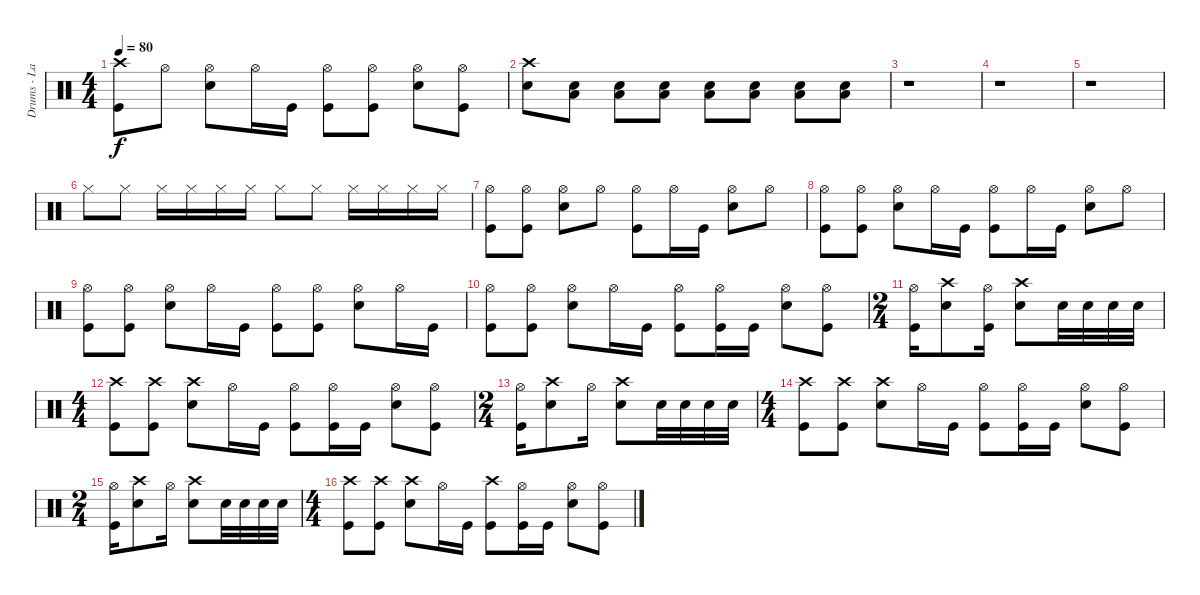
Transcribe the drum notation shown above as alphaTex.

\track ("Drums - Lars" "Drums - La") {instrument percussion}
\staff {score}
\articulation defaults
\ts (4 4)
\tempo 80
\clef neutral
\ks c
("Crash high (hit)" "Kick (hit)").8{dy f} "Hi-Hat (open)".8 ("Hi-Hat (open)" "Snare (hit) 2").8 "Hi-Hat (open)".16 "Kick (hit)".16 ("Hi-Hat (open)" "Kick (hit)").8 ("Hi-Hat (open)" "Kick (hit)").8 ("Hi-Hat (open)" "Snare (hit) 2").8 ("Hi-Hat (open)" "Kick (hit)").8 |
("Crash high (hit)" "Snare (hit) 2").8 ("Snare (hit) 2" "Low Floor Tom (hit)").8 ("Snare (hit) 2" "Low Floor Tom (hit)").8 ("Snare (hit) 2" "Low Floor Tom (hit)").8 ("Snare (hit) 2" "Low Floor Tom (hit)").8 ("Snare (hit) 2" "Low Floor Tom (hit)").8 ("Snare (hit) 2" "Low Floor Tom (hit)").8 ("Snare (hit) 2" "Low Floor Tom (hit)").8 |
r.1 |
r.1 |
r.1 |
"Hi-Hat (closed)".8 "Hi-Hat (closed)".8 "Hi-Hat (closed)".16 "Hi-Hat (closed)".16 "Hi-Hat (closed)".16 "Hi-Hat (closed)".16 "Hi-Hat (closed)".8 "Hi-Hat (closed)".8 "Hi-Hat (closed)".16 "Hi-Hat (closed)".16 "Hi-Hat (closed)".16 "Hi-Hat (closed)".16 |
("Hi-Hat (open)" "Kick (hit)").8 ("Hi-Hat (open)" "Kick (hit)").8 ("Hi-Hat (open)" "Snare (hit) 2").8 "Hi-Hat (open)".8 ("Hi-Hat (open)" "Kick (hit)").8 "Hi-Hat (open)".16 "Kick (hit)".16 ("Hi-Hat (open)" "Snare (hit) 2").8 "Hi-Hat (open)".8 |
("Hi-Hat (open)" "Kick (hit)").8 ("Hi-Hat (open)" "Kick (hit)").8 ("Hi-Hat (open)" "Snare (hit) 2").8 "Hi-Hat (open)".16 "Kick (hit)".16 ("Hi-Hat (open)" "Kick (hit)").8 "Hi-Hat (open)".16 "Kick (hit)".16 ("Hi-Hat (open)" "Snare (hit) 2").8 "Hi-Hat (open)".8 |
("Hi-Hat (open)" "Kick (hit)").8 ("Hi-Hat (open)" "Kick (hit)").8 ("Hi-Hat (open)" "Snare (hit) 2").8 "Hi-Hat (open)".16 "Kick (hit)".16 ("Hi-Hat (open)" "Kick (hit)").8 ("Hi-Hat (open)" "Kick (hit)").8 ("Hi-Hat (open)" "Snare (hit) 2").8 "Hi-Hat (open)".16 "Kick (hit)".16 |
("Hi-Hat (open)" "Kick (hit)").8 ("Hi-Hat (open)" "Kick (hit)").8 ("Hi-Hat (open)" "Snare (hit) 2").8 "Hi-Hat (open)".16 "Kick (hit)".16 ("Hi-Hat (open)" "Kick (hit)").8 ("Hi-Hat (open)" "Kick (hit)").16 "Kick (hit)".16 ("Hi-Hat (open)" "Snare (hit) 2").8 ("Hi-Hat (open)" "Kick (hit)").8 |
\ts (2 4)
("Hi-Hat (open)" "Kick (hit)").16 ("Crash high (hit)" "Snare (hit) 2").8 ("Hi-Hat (open)" "Kick (hit)").16 ("Crash high (hit)" "Snare (hit) 2").8 "Snare (hit) 2".32 "Snare (hit) 2".32 "Snare (hit) 2".32 "Snare (hit) 2".32 |
\ts (4 4)
("Crash high (hit)" "Kick (hit)").8 ("Crash high (hit)" "Kick (hit)").8 ("Crash high (hit)" "Snare (hit) 2").8 "Hi-Hat (open)".16 "Kick (hit)".16 ("Hi-Hat (open)" "Kick (hit)").8 ("Hi-Hat (open)" "Kick (hit)").16 "Kick (hit)".16 ("Hi-Hat (open)" "Snare (hit) 2").8 ("Hi-Hat (open)" "Kick (hit)").8 |
\ts (2 4)
("Hi-Hat (open)" "Kick (hit)").16 ("Crash high (hit)" "Snare (hit) 2").8 "Hi-Hat (open)".16 ("Crash high (hit)" "Snare (hit) 2").8 "Snare (hit) 2".32 "Snare (hit) 2".32 "Snare (hit) 2".32 "Snare (hit) 2".32 |
\ts (4 4)
("Crash high (hit)" "Kick (hit)").8 ("Crash high (hit)" "Kick (hit)").8 ("Crash high (hit)" "Snare (hit) 2").8 "Hi-Hat (open)".16 "Kick (hit)".16 ("Hi-Hat (open)" "Kick (hit)").8 ("Hi-Hat (open)" "Kick (hit)").16 "Kick (hit)".16 ("Hi-Hat (open)" "Snare (hit) 2").8 ("Hi-Hat (open)" "Kick (hit)").8 |
\ts (2 4)
("Hi-Hat (open)" "Kick (hit)").16 ("Crash high (hit)" "Snare (hit) 2").8 "Hi-Hat (open)".16 ("Crash high (hit)" "Snare (hit) 2").8 "Snare (hit) 2".32 "Snare (hit) 2".32 "Snare (hit) 2".32 "Snare (hit) 2".32 |
\ts (4 4)
("Crash high (hit)" "Kick (hit)").8 ("Crash high (hit)" "Kick (hit)").8 ("Crash high (hit)" "Snare (hit) 2").8 "Hi-Hat (open)".16 "Kick (hit)".16 ("Crash high (hit)" "Kick (hit)").8 ("Hi-Hat (open)" "Kick (hit)").16 "Kick (hit)".16 ("Hi-Hat (open)" "Snare (hit) 2").8 ("Hi-Hat (open)" "Kick (hit)").8
